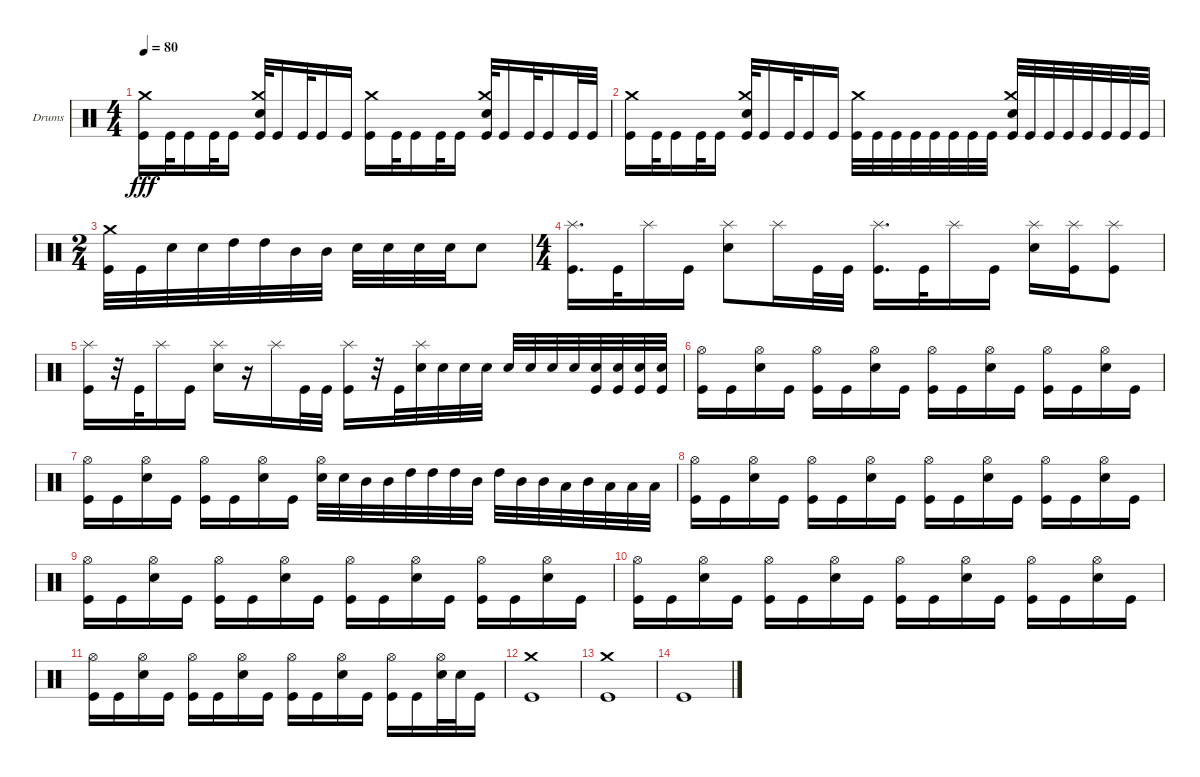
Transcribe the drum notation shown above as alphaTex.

\defaultSystemsLayout 4
\bracketExtendMode groupsimilarinstruments
\firstSystemTrackNameOrientation horizontal
\otherSystemsTrackNameOrientation horizontal
\track ("Drumkit" "Drums") {instrument percussion}
\staff {score}
\articulation defaults
\ts (4 4)
\tempo 80
\clef neutral
\ks c
("Kick (hit)" "Crash medium (hit)").16{dy fff} "Kick (hit)".32 "Kick (hit)".16 "Kick (hit)".32 "Kick (hit)".16 ("Kick (hit)" "Crash medium (hit)" "Snare (hit) 2").32 "Kick (hit)".16 "Kick (hit)".32 "Kick (hit)".16 "Kick (hit)".16 ("Kick (hit)" "Crash medium (hit)").16 "Kick (hit)".32 "Kick (hit)".16 "Kick (hit)".32 "Kick (hit)".16 ("Kick (hit)" "Crash medium (hit)" "Snare (hit) 2").32 "Kick (hit)".16 "Kick (hit)".32 "Kick (hit)".16 "Kick (hit)".32 "Kick (hit)".32 |
("Kick (hit)" "Crash medium (hit)").16 "Kick (hit)".32 "Kick (hit)".16 "Kick (hit)".32 "Kick (hit)".16 ("Kick (hit)" "Crash medium (hit)" "Snare (hit) 2").32 "Kick (hit)".16 "Kick (hit)".32 "Kick (hit)".16 "Kick (hit)".16 ("Kick (hit)" "Crash medium (hit)").32 "Kick (hit)".32 "Kick (hit)".32 "Kick (hit)".32 "Kick (hit)".32 "Kick (hit)".32 "Kick (hit)".32 "Kick (hit)".32 ("Kick (hit)" "Crash medium (hit)" "Snare (hit) 2").32 "Kick (hit)".32 "Kick (hit)".32 "Kick (hit)".32 "Kick (hit)".32 "Kick (hit)".32 "Kick (hit)".32 "Kick (hit)".32 |
\ts (2 4)
("Kick (hit)" "Crash medium (hit)").32 "Kick (hit)".32 "Snare (hit) 2".32 "Snare (hit) 2".32 "High Tom (hit)".32 "High Tom (hit)".32 "Mid Tom (hit)".32 "Mid Tom (hit)".32 "Snare (hit) 2".32 "Snare (hit) 2".32 "Snare (hit) 2".32 "Snare (hit) 2".32 "Snare (hit) 2".8 |
\ts (4 4)
("Kick (hit)" "Splash (hit)").16{d} "Kick (hit)".32 "Splash (hit)".16 "Kick (hit)".16 ("Snare (hit) 2" "Splash (hit)").8 "Splash (hit)".16 "Kick (hit)".32 "Kick (hit)".32 ("Kick (hit)" "Splash (hit)").16{d} "Kick (hit)".32 "Splash (hit)".16 "Kick (hit)".16 ("Snare (hit) 2" "Splash (hit)").16 ("Kick (hit)" "Splash (hit)").16 ("Kick (hit)" "Splash (hit)").8 |
("Kick (hit)" "Splash (hit)").16 r.32 "Kick (hit)".32 "Splash (hit)".16 "Kick (hit)".16 ("Snare (hit) 2" "Splash (hit)").16 r.16 "Splash (hit)".16 "Kick (hit)".32 "Kick (hit)".32 ("Kick (hit)" "Splash (hit)").16 r.32 "Kick (hit)".32 ("Snare (hit) 2" "Splash (hit)").32 "Snare (hit) 2".32 "Snare (hit) 2".32 "Snare (hit) 2".32 "Snare (hit) 2".32 "Snare (hit) 2".32 "Snare (hit) 2".32 "Snare (hit) 2".32 ("Snare (hit) 2" "Kick (hit)").32 ("Kick (hit)" "Snare (hit) 2").32 ("Kick (hit)" "Snare (hit) 2").32 ("Kick (hit)" "Snare (hit) 2").32 |
("Kick (hit)" "Hi-Hat (open)").16 "Kick (hit)".16 ("Snare (hit) 2" "Hi-Hat (open)").16 "Kick (hit)".16 ("Kick (hit)" "Hi-Hat (open)").16 "Kick (hit)".16 ("Snare (hit) 2" "Hi-Hat (open)").16 "Kick (hit)".16 ("Kick (hit)" "Hi-Hat (open)").16 "Kick (hit)".16 ("Snare (hit) 2" "Hi-Hat (open)").16 "Kick (hit)".16 ("Kick (hit)" "Hi-Hat (open)").16 "Kick (hit)".16 ("Snare (hit) 2" "Hi-Hat (open)").16 "Kick (hit)".16 |
("Kick (hit)" "Hi-Hat (open)").16 "Kick (hit)".16 ("Snare (hit) 2" "Hi-Hat (open)").16 "Kick (hit)".16 ("Kick (hit)" "Hi-Hat (open)").16 "Kick (hit)".16 ("Snare (hit) 2" "Hi-Hat (open)").16 "Kick (hit)".16 ("Snare (hit) 2" "Hi-Hat (open)").32 "Snare (hit) 2".32 "Mid Tom (hit)".32 "Mid Tom (hit)".32 "High Tom (hit)".32 "High Tom (hit)".32 "High Tom (hit)".32 "Mid Tom (hit)".32 "High Tom (hit)".32 "Mid Tom (hit)".32 "Mid Tom (hit)".32 "Low Tom (hit)".32 "Mid Tom (hit)".32 "Low Tom (hit)".32 "Low Tom (hit)".32 "Low Tom (hit)".32 |
("Kick (hit)" "Hi-Hat (open)").16 "Kick (hit)".16 ("Snare (hit) 2" "Hi-Hat (open)").16 "Kick (hit)".16 ("Kick (hit)" "Hi-Hat (open)").16 "Kick (hit)".16 ("Snare (hit) 2" "Hi-Hat (open)").16 "Kick (hit)".16 ("Kick (hit)" "Hi-Hat (open)").16 "Kick (hit)".16 ("Snare (hit) 2" "Hi-Hat (open)").16 "Kick (hit)".16 ("Kick (hit)" "Hi-Hat (open)").16 "Kick (hit)".16 ("Snare (hit) 2" "Hi-Hat (open)").16 "Kick (hit)".16 |
("Kick (hit)" "Hi-Hat (open)").16 "Kick (hit)".16 ("Snare (hit) 2" "Hi-Hat (open)").16 "Kick (hit)".16 ("Kick (hit)" "Hi-Hat (open)").16 "Kick (hit)".16 ("Snare (hit) 2" "Hi-Hat (open)").16 "Kick (hit)".16 ("Kick (hit)" "Hi-Hat (open)").16 "Kick (hit)".16 ("Snare (hit) 2" "Hi-Hat (open)").16 "Kick (hit)".16 ("Hi-Hat (open)" "Kick (hit)").16 "Kick (hit)".16 ("Snare (hit) 2" "Hi-Hat (open)").16 "Kick (hit)".16 |
("Kick (hit)" "Hi-Hat (open)").16 "Kick (hit)".16 ("Snare (hit) 2" "Hi-Hat (open)").16 "Kick (hit)".16 ("Kick (hit)" "Hi-Hat (open)").16 "Kick (hit)".16 ("Snare (hit) 2" "Hi-Hat (open)").16 "Kick (hit)".16 ("Kick (hit)" "Hi-Hat (open)").16 "Kick (hit)".16 ("Snare (hit) 2" "Hi-Hat (open)").16 "Kick (hit)".16 ("Kick (hit)" "Hi-Hat (open)").16 "Kick (hit)".16 ("Snare (hit) 2" "Hi-Hat (open)").16 "Kick (hit)".16 |
("Kick (hit)" "Hi-Hat (open)").16 "Kick (hit)".16 ("Snare (hit) 2" "Hi-Hat (open)").16 "Kick (hit)".16 ("Kick (hit)" "Hi-Hat (open)").16 "Kick (hit)".16 ("Snare (hit) 2" "Hi-Hat (open)").16 "Kick (hit)".16 ("Kick (hit)" "Hi-Hat (open)").16 "Kick (hit)".16 ("Snare (hit) 2" "Hi-Hat (open)").16 "Kick (hit)".16 ("Hi-Hat (open)" "Kick (hit)").16 "Kick (hit)".16 ("Snare (hit) 2" "Hi-Hat (open)").32 "Snare (hit) 2".32 "Kick (hit)".16 |
("Kick (hit)" "Crash medium (hit)").1 |
("Crash medium (hit)" "Kick (hit)").1 |
"Kick (hit)".1
